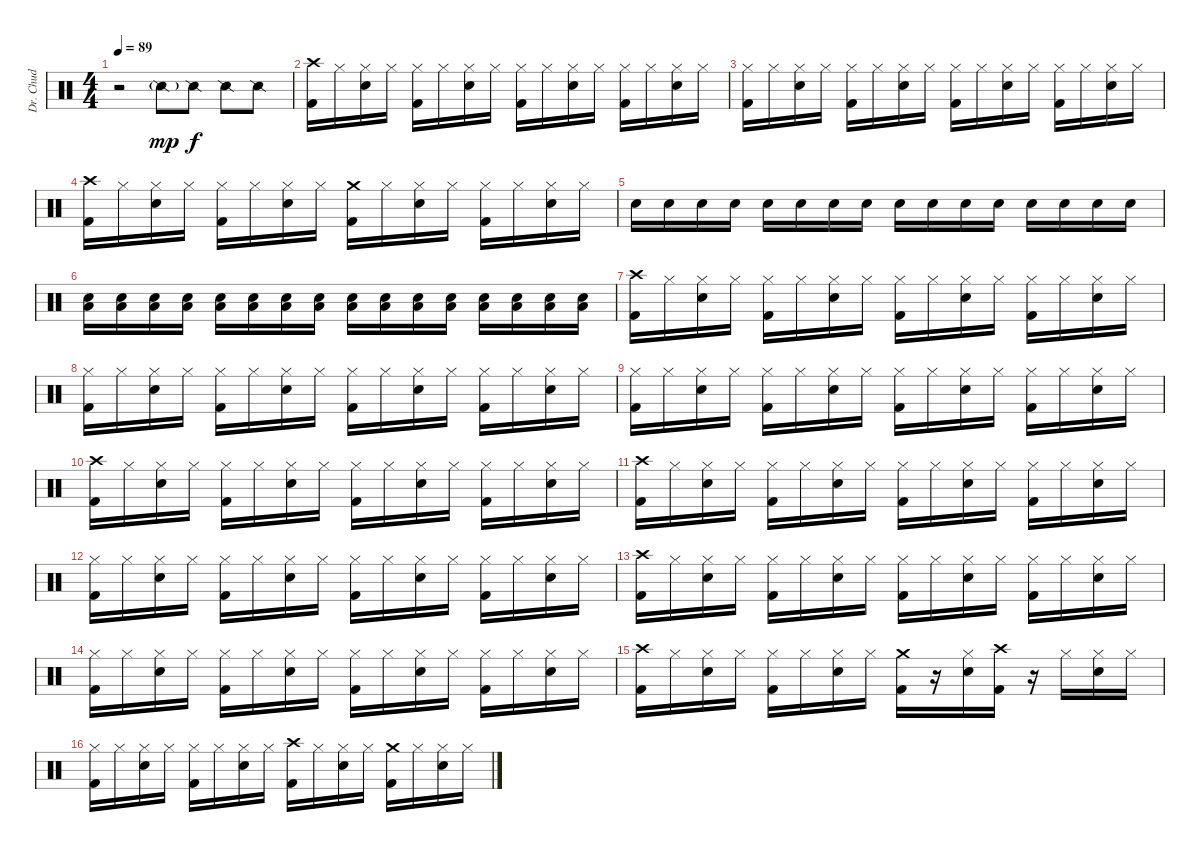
\track ("Dr. Chud" "Dr. Chud") {instrument percussion}
\staff {score}
\articulation defaults
\ts (4 4)
\tempo 89
\clef neutral
\ks c
r.2{dy mp} "Snare (side stick) 2"{g}.8 "Snare (side stick) 2".8{dy f} "Snare (side stick) 2".8 "Snare (side stick) 2".8 |
("Crash high (hit)" "Kick (hit) 2").16 "Hi-Hat (closed)".16 ("Hi-Hat (closed)" "Snare (hit) 2").16 "Hi-Hat (closed)".16 ("Hi-Hat (closed)" "Kick (hit) 2").16 "Hi-Hat (closed)".16 ("Hi-Hat (closed)" "Snare (hit) 2").16 "Hi-Hat (closed)".16 ("Hi-Hat (closed)" "Kick (hit) 2").16 "Hi-Hat (closed)".16 ("Hi-Hat (closed)" "Snare (hit) 2").16 "Hi-Hat (closed)".16 ("Hi-Hat (closed)" "Kick (hit) 2").16 "Hi-Hat (closed)".16 ("Hi-Hat (closed)" "Snare (hit) 2").16 "Hi-Hat (closed)".16 |
("Hi-Hat (closed)" "Kick (hit) 2").16 "Hi-Hat (closed)".16 ("Hi-Hat (closed)" "Snare (hit) 2").16 "Hi-Hat (closed)".16 ("Hi-Hat (closed)" "Kick (hit) 2").16 "Hi-Hat (closed)".16 ("Hi-Hat (closed)" "Snare (hit) 2").16 "Hi-Hat (closed)".16 ("Hi-Hat (closed)" "Kick (hit) 2").16 "Hi-Hat (closed)".16 ("Hi-Hat (closed)" "Snare (hit) 2").16 "Hi-Hat (closed)".16 ("Hi-Hat (closed)" "Kick (hit) 2").16 "Hi-Hat (closed)".16 ("Hi-Hat (closed)" "Snare (hit) 2").16 "Hi-Hat (closed)".16 |
("Crash high (hit)" "Kick (hit) 2").16 "Hi-Hat (closed)".16 ("Hi-Hat (closed)" "Snare (hit) 2").16 "Hi-Hat (closed)".16 ("Hi-Hat (closed)" "Kick (hit) 2").16 "Hi-Hat (closed)".16 ("Hi-Hat (closed)" "Snare (hit) 2").16 "Hi-Hat (closed)".16 ("Crash medium (hit)" "Kick (hit) 2").16 "Hi-Hat (closed)".16 ("Hi-Hat (closed)" "Snare (hit) 2").16 "Hi-Hat (closed)".16 ("Hi-Hat (closed)" "Kick (hit) 2").16 "Hi-Hat (closed)".16 ("Hi-Hat (closed)" "Snare (hit) 2").16 "Hi-Hat (closed)".16 |
"Snare (hit) 2".16 "Snare (hit) 2".16 "Snare (hit) 2".16 "Snare (hit) 2".16 "Snare (hit) 2".16 "Snare (hit) 2".16 "Snare (hit) 2".16 "Snare (hit) 2".16 "Snare (hit) 2".16 "Snare (hit) 2".16 "Snare (hit) 2".16 "Snare (hit) 2".16 "Snare (hit) 2".16 "Snare (hit) 2".16 "Snare (hit) 2".16 "Snare (hit) 2".16 |
("Snare (hit) 2" "Low Tom (hit)").16 ("Snare (hit) 2" "Low Tom (hit)").16 ("Snare (hit) 2" "Low Tom (hit)").16 ("Snare (hit) 2" "Low Tom (hit)").16 ("Snare (hit) 2" "Low Tom (hit)").16 ("Snare (hit) 2" "Low Tom (hit)").16 ("Snare (hit) 2" "Low Tom (hit)").16 ("Snare (hit) 2" "Low Tom (hit)").16 ("Snare (hit) 2" "Low Tom (hit)").16 ("Snare (hit) 2" "Low Tom (hit)").16 ("Snare (hit) 2" "Low Tom (hit)").16 ("Snare (hit) 2" "Low Tom (hit)").16 ("Snare (hit) 2" "Low Tom (hit)").16 ("Snare (hit) 2" "Low Tom (hit)").16 ("Snare (hit) 2" "Low Tom (hit)").16 ("Snare (hit) 2" "Low Tom (hit)").16 |
("Crash high (hit)" "Kick (hit) 2").16 "Hi-Hat (closed)".16 ("Hi-Hat (closed)" "Snare (hit) 2").16 "Hi-Hat (closed)".16 ("Hi-Hat (closed)" "Kick (hit) 2").16 "Hi-Hat (closed)".16 ("Hi-Hat (closed)" "Snare (hit) 2").16 "Hi-Hat (closed)".16 ("Hi-Hat (closed)" "Kick (hit) 2").16 "Hi-Hat (closed)".16 ("Hi-Hat (closed)" "Snare (hit) 2").16 "Hi-Hat (closed)".16 ("Hi-Hat (closed)" "Kick (hit) 2").16 "Hi-Hat (closed)".16 ("Hi-Hat (closed)" "Snare (hit) 2").16 "Hi-Hat (closed)".16 |
("Hi-Hat (closed)" "Kick (hit) 2").16 "Hi-Hat (closed)".16 ("Hi-Hat (closed)" "Snare (hit) 2").16 "Hi-Hat (closed)".16 ("Hi-Hat (closed)" "Kick (hit) 2").16 "Hi-Hat (closed)".16 ("Hi-Hat (closed)" "Snare (hit) 2").16 "Hi-Hat (closed)".16 ("Hi-Hat (closed)" "Kick (hit) 2").16 "Hi-Hat (closed)".16 ("Hi-Hat (closed)" "Snare (hit) 2").16 "Hi-Hat (closed)".16 ("Hi-Hat (closed)" "Kick (hit) 2").16 "Hi-Hat (closed)".16 ("Hi-Hat (closed)" "Snare (hit) 2").16 "Hi-Hat (closed)".16 |
("Hi-Hat (closed)" "Kick (hit) 2").16 "Hi-Hat (closed)".16 ("Hi-Hat (closed)" "Snare (hit) 2").16 "Hi-Hat (closed)".16 ("Hi-Hat (closed)" "Kick (hit) 2").16 "Hi-Hat (closed)".16 ("Hi-Hat (closed)" "Snare (hit) 2").16 "Hi-Hat (closed)".16 ("Hi-Hat (closed)" "Kick (hit) 2").16 "Hi-Hat (closed)".16 ("Hi-Hat (closed)" "Snare (hit) 2").16 "Hi-Hat (closed)".16 ("Hi-Hat (closed)" "Kick (hit) 2").16 "Hi-Hat (closed)".16 ("Hi-Hat (closed)" "Snare (hit) 2").16 "Hi-Hat (closed)".16 |
("Crash high (hit)" "Kick (hit) 2").16 "Hi-Hat (closed)".16 ("Hi-Hat (closed)" "Snare (hit) 2").16 "Hi-Hat (closed)".16 ("Hi-Hat (closed)" "Kick (hit) 2").16 "Hi-Hat (closed)".16 ("Hi-Hat (closed)" "Snare (hit) 2").16 "Hi-Hat (closed)".16 ("Hi-Hat (closed)" "Kick (hit) 2").16 "Hi-Hat (closed)".16 ("Hi-Hat (closed)" "Snare (hit) 2").16 "Hi-Hat (closed)".16 ("Hi-Hat (closed)" "Kick (hit) 2").16 "Hi-Hat (closed)".16 ("Hi-Hat (closed)" "Snare (hit) 2").16 "Hi-Hat (closed)".16 |
("Crash high (hit)" "Kick (hit) 2").16 "Hi-Hat (closed)".16 ("Hi-Hat (closed)" "Snare (hit) 2").16 "Hi-Hat (closed)".16 ("Hi-Hat (closed)" "Kick (hit) 2").16 "Hi-Hat (closed)".16 ("Hi-Hat (closed)" "Snare (hit) 2").16 "Hi-Hat (closed)".16 ("Hi-Hat (closed)" "Kick (hit) 2").16 "Hi-Hat (closed)".16 ("Hi-Hat (closed)" "Snare (hit) 2").16 "Hi-Hat (closed)".16 ("Hi-Hat (closed)" "Kick (hit) 2").16 "Hi-Hat (closed)".16 ("Hi-Hat (closed)" "Snare (hit) 2").16 "Hi-Hat (closed)".16 |
("Hi-Hat (closed)" "Kick (hit) 2").16 "Hi-Hat (closed)".16 ("Hi-Hat (closed)" "Snare (hit) 2").16 "Hi-Hat (closed)".16 ("Hi-Hat (closed)" "Kick (hit) 2").16 "Hi-Hat (closed)".16 ("Hi-Hat (closed)" "Snare (hit) 2").16 "Hi-Hat (closed)".16 ("Hi-Hat (closed)" "Kick (hit) 2").16 "Hi-Hat (closed)".16 ("Hi-Hat (closed)" "Snare (hit) 2").16 "Hi-Hat (closed)".16 ("Hi-Hat (closed)" "Kick (hit) 2").16 "Hi-Hat (closed)".16 ("Hi-Hat (closed)" "Snare (hit) 2").16 "Hi-Hat (closed)".16 |
("Crash high (hit)" "Kick (hit) 2").16 "Hi-Hat (closed)".16 ("Hi-Hat (closed)" "Snare (hit) 2").16 "Hi-Hat (closed)".16 ("Hi-Hat (closed)" "Kick (hit) 2").16 "Hi-Hat (closed)".16 ("Hi-Hat (closed)" "Snare (hit) 2").16 "Hi-Hat (closed)".16 ("Hi-Hat (closed)" "Kick (hit) 2").16 "Hi-Hat (closed)".16 ("Hi-Hat (closed)" "Snare (hit) 2").16 "Hi-Hat (closed)".16 ("Hi-Hat (closed)" "Kick (hit) 2").16 "Hi-Hat (closed)".16 ("Hi-Hat (closed)" "Snare (hit) 2").16 "Hi-Hat (closed)".16 |
("Hi-Hat (closed)" "Kick (hit) 2").16 "Hi-Hat (closed)".16 ("Hi-Hat (closed)" "Snare (hit) 2").16 "Hi-Hat (closed)".16 ("Hi-Hat (closed)" "Kick (hit) 2").16 "Hi-Hat (closed)".16 ("Hi-Hat (closed)" "Snare (hit) 2").16 "Hi-Hat (closed)".16 ("Hi-Hat (closed)" "Kick (hit) 2").16 "Hi-Hat (closed)".16 ("Hi-Hat (closed)" "Snare (hit) 2").16 "Hi-Hat (closed)".16 ("Hi-Hat (closed)" "Kick (hit) 2").16 "Hi-Hat (closed)".16 ("Hi-Hat (closed)" "Snare (hit) 2").16 "Hi-Hat (closed)".16 |
("Crash high (hit)" "Kick (hit) 2").16 "Hi-Hat (closed)".16 ("Hi-Hat (closed)" "Snare (hit) 2").16 "Hi-Hat (closed)".16 ("Hi-Hat (closed)" "Kick (hit) 2").16 "Hi-Hat (closed)".16 ("Hi-Hat (closed)" "Snare (hit) 2").16 "Hi-Hat (closed)".16 ("Crash medium (hit)" "Kick (hit) 2").16 r.16 ("Hi-Hat (closed)" "Snare (hit) 2").16 ("Crash high (hit)" "Kick (hit) 2").16 r.16 "Hi-Hat (closed)".16 ("Hi-Hat (closed)" "Snare (hit) 2").16 "Hi-Hat (closed)".16 |
("Hi-Hat (closed)" "Kick (hit) 2").16 "Hi-Hat (closed)".16 ("Hi-Hat (closed)" "Snare (hit) 2").16 "Hi-Hat (closed)".16 ("Hi-Hat (closed)" "Kick (hit) 2").16 "Hi-Hat (closed)".16 ("Hi-Hat (closed)" "Snare (hit) 2").16 "Hi-Hat (closed)".16 ("Crash high (hit)" "Kick (hit) 2").16 "Hi-Hat (closed)".16 ("Hi-Hat (closed)" "Snare (hit) 2").16 "Hi-Hat (closed)".16 ("Crash medium (hit)" "Kick (hit) 2").16 "Hi-Hat (closed)".16 ("Hi-Hat (closed)" "Snare (hit) 2").16 "Hi-Hat (closed)".16
